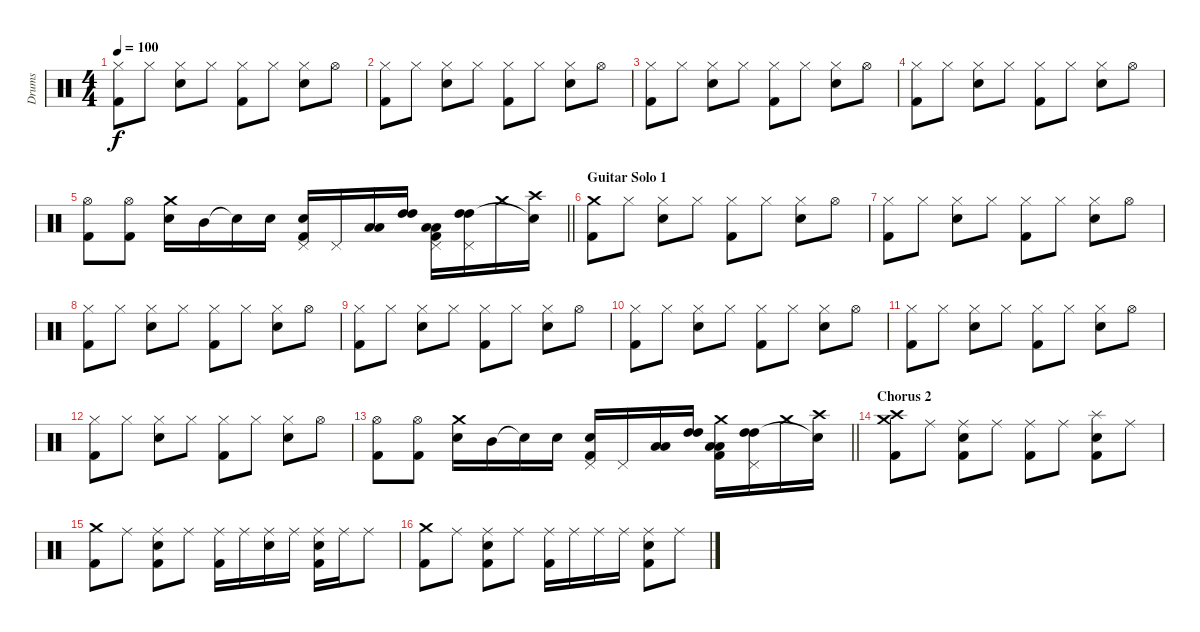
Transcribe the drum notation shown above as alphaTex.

\track ("Drums" "Drums") {instrument percussion}
\staff {score}
\articulation defaults
\ts (4 4)
\tempo 100
\clef neutral
\ks c
("Hi-Hat (closed)" "Kick (hit) 2").8{dy f} "Hi-Hat (closed)".8 ("Hi-Hat (closed)" "Electric Snare (hit)").8 "Hi-Hat (closed)".8 ("Hi-Hat (closed)" "Kick (hit) 2").8 "Hi-Hat (closed)".8 ("Hi-Hat (closed)" "Electric Snare (hit)").8 "Hi-Hat (open)".8 |
("Hi-Hat (closed)" "Kick (hit) 2").8 "Hi-Hat (closed)".8 ("Hi-Hat (closed)" "Electric Snare (hit)").8 "Hi-Hat (closed)".8 ("Hi-Hat (closed)" "Kick (hit) 2").8 "Hi-Hat (closed)".8 ("Hi-Hat (closed)" "Electric Snare (hit)").8 "Hi-Hat (open)".8 |
("Hi-Hat (closed)" "Kick (hit) 2").8 "Hi-Hat (closed)".8 ("Hi-Hat (closed)" "Electric Snare (hit)").8 "Hi-Hat (closed)".8 ("Hi-Hat (closed)" "Kick (hit) 2").8 "Hi-Hat (closed)".8 ("Hi-Hat (closed)" "Electric Snare (hit)").8 "Hi-Hat (open)".8 |
("Hi-Hat (closed)" "Kick (hit) 2").8 "Hi-Hat (closed)".8 ("Hi-Hat (closed)" "Electric Snare (hit)").8 "Hi-Hat (closed)".8 ("Hi-Hat (closed)" "Kick (hit) 2").8 "Hi-Hat (closed)".8 ("Hi-Hat (closed)" "Electric Snare (hit)").8 "Hi-Hat (open)".8 |
\barLineRight lightlight
("Hi-Hat (open)" "Kick (hit) 2").8 ("Hi-Hat (open)" "Kick (hit) 2").8 ("Crash medium (hit)" "Electric Snare (hit)").16 "Mid Tom (hit)".16 "Snare (hit)"{t}.16 "Electric Snare (hit)".16 ("Pedal Hi-Hat (hit)" "Electric Snare (hit)" "Kick (hit) 2").16 "Pedal Hi-Hat (hit)".16 ("Low Floor Tom (hit)" "Low Floor Tom (hit)").16 ("High Tom (hit)" "High Tom (hit)").16 ("Pedal Hi-Hat (hit)" "Low Floor Tom (hit)" "Low Floor Tom (hit)" "Kick (hit) 2").16 ("Pedal Hi-Hat (hit)" "High Tom (hit)" "High Tom (hit)").16 "Crash medium (hit)".16 ("Crash high (hit)" "Snare (hit)"{t}).16 |
\section ("" "Guitar Solo 1")
("Crash medium (hit)" "Kick (hit) 2").8 "Hi-Hat (closed)".8 ("Hi-Hat (closed)" "Electric Snare (hit)").8 "Hi-Hat (closed)".8 ("Hi-Hat (closed)" "Kick (hit) 2").8 "Hi-Hat (closed)".8 ("Hi-Hat (closed)" "Electric Snare (hit)").8 "Hi-Hat (open)".8 |
("Hi-Hat (closed)" "Kick (hit) 2").8 "Hi-Hat (closed)".8 ("Hi-Hat (closed)" "Electric Snare (hit)").8 "Hi-Hat (closed)".8 ("Hi-Hat (closed)" "Kick (hit) 2").8 "Hi-Hat (closed)".8 ("Hi-Hat (closed)" "Electric Snare (hit)").8 "Hi-Hat (open)".8 |
("Hi-Hat (closed)" "Kick (hit) 2").8 "Hi-Hat (closed)".8 ("Hi-Hat (closed)" "Electric Snare (hit)").8 "Hi-Hat (closed)".8 ("Hi-Hat (closed)" "Kick (hit) 2").8 "Hi-Hat (closed)".8 ("Hi-Hat (closed)" "Electric Snare (hit)").8 "Hi-Hat (open)".8 |
("Hi-Hat (closed)" "Kick (hit) 2").8 "Hi-Hat (closed)".8 ("Hi-Hat (closed)" "Electric Snare (hit)").8 "Hi-Hat (closed)".8 ("Hi-Hat (closed)" "Kick (hit) 2").8 "Hi-Hat (closed)".8 ("Hi-Hat (closed)" "Electric Snare (hit)").8 "Hi-Hat (open)".8 |
("Hi-Hat (closed)" "Kick (hit) 2").8 "Hi-Hat (closed)".8 ("Hi-Hat (closed)" "Electric Snare (hit)").8 "Hi-Hat (closed)".8 ("Hi-Hat (closed)" "Kick (hit) 2").8 "Hi-Hat (closed)".8 ("Hi-Hat (closed)" "Electric Snare (hit)").8 "Hi-Hat (open)".8 |
("Hi-Hat (closed)" "Kick (hit) 2").8 "Hi-Hat (closed)".8 ("Hi-Hat (closed)" "Electric Snare (hit)").8 "Hi-Hat (closed)".8 ("Hi-Hat (closed)" "Kick (hit) 2").8 "Hi-Hat (closed)".8 ("Hi-Hat (closed)" "Electric Snare (hit)").8 "Hi-Hat (open)".8 |
("Hi-Hat (closed)" "Kick (hit) 2").8 "Hi-Hat (closed)".8 ("Hi-Hat (closed)" "Electric Snare (hit)").8 "Hi-Hat (closed)".8 ("Hi-Hat (closed)" "Kick (hit) 2").8 "Hi-Hat (closed)".8 ("Hi-Hat (closed)" "Electric Snare (hit)").8 "Hi-Hat (open)".8 |
\barLineRight lightlight
("Hi-Hat (open)" "Kick (hit) 2").8 ("Hi-Hat (open)" "Kick (hit) 2").8 ("Crash medium (hit)" "Electric Snare (hit)").16 "Mid Tom (hit)".16 "Snare (hit)"{t}.16 "Electric Snare (hit)".16 ("Pedal Hi-Hat (hit)" "Electric Snare (hit)" "Kick (hit) 2").16 "Pedal Hi-Hat (hit)".16 ("Low Floor Tom (hit)" "Low Floor Tom (hit)").16 ("High Tom (hit)" "High Tom (hit)").16 ("Crash medium (hit)" "Low Floor Tom (hit)" "Low Floor Tom (hit)" "Kick (hit) 2").16 ("Pedal Hi-Hat (hit)" "High Tom (hit)" "High Tom (hit)").16 "Crash medium (hit)".16 ("Crash high (hit)" "Snare (hit)"{t}).16 |
\section ("" "Chorus 2")
("Crash medium (hit)" "Crash high (hit)" "Kick (hit) 2").8 "Ride (middle)".8 ("Ride (middle)" "Electric Snare (hit)" "Kick (hit) 2").8 "Ride (middle)".8 ("Ride (middle)" "Kick (hit) 2").8 "Ride (middle)".8 ("Splash (hit)" "Electric Snare (hit)" "Kick (hit) 2").8 "Ride (middle)".8 |
("Crash medium (hit)" "Kick (hit) 2").8 "Ride (middle)".8 ("Ride (middle)" "Electric Snare (hit)" "Kick (hit) 2").8 "Ride (middle)".8 ("Ride (middle)" "Kick (hit) 2").16 "Ride (middle)".16 ("Ride (middle)" "Electric Snare (hit)").16 "Ride (middle)".16 ("Ride (middle)" "Electric Snare (hit)" "Kick (hit) 2").16 "Ride (middle)".16 "Ride (middle)".8 |
("Crash medium (hit)" "Kick (hit) 2").8 "Ride (middle)".8 ("Ride (middle)" "Electric Snare (hit)" "Kick (hit) 2").8 "Ride (middle)".8 ("Ride (middle)" "Kick (hit) 2").16 "Ride (middle)".16 "Ride (middle)".16 "Ride (middle)".16 ("Ride (middle)" "Electric Snare (hit)" "Kick (hit) 2").8 "Ride (middle)".8
